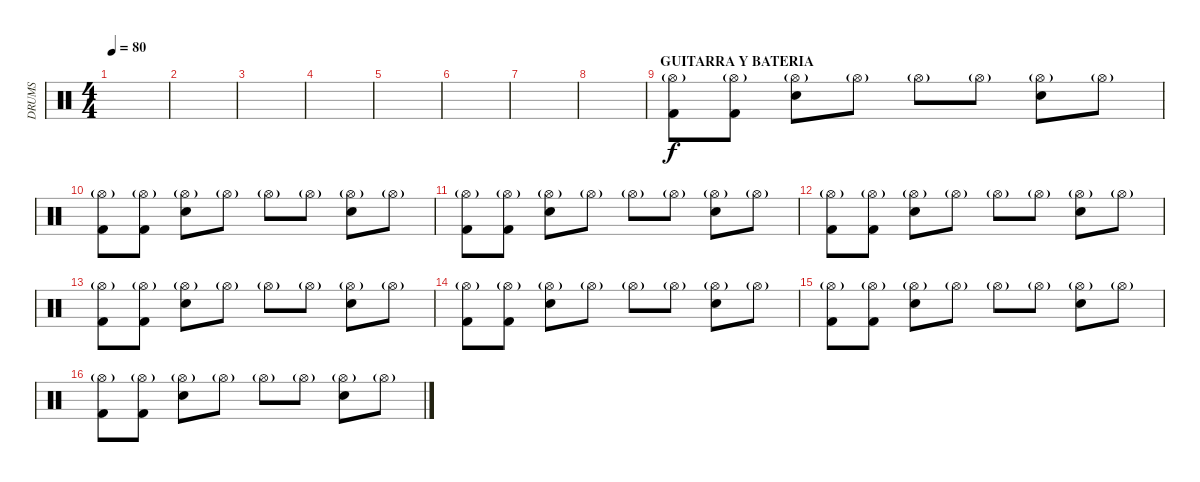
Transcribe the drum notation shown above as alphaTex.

\track ("DRUMS" "DRUMS") {instrument percussion}
\staff {score}
\articulation defaults
\ts (4 4)
\tempo 80
\clef neutral
\ks c
|
|
|
|
|
|
|
|
\section ("" "GUITARRA Y BATERIA")
("Hi-Hat (open)"{g} "Kick (hit) 2").8 ("Hi-Hat (open)"{g} "Kick (hit) 2").8 ("Hi-Hat (open)"{g} "Snare (hit) 2").8 "Hi-Hat (open)"{g}.8 "Hi-Hat (open)"{g}.8 "Hi-Hat (open)"{g}.8 ("Hi-Hat (open)"{g} "Snare (hit) 2").8 "Hi-Hat (open)"{g}.8 |
("Hi-Hat (open)"{g} "Kick (hit) 2").8 ("Hi-Hat (open)"{g} "Kick (hit) 2").8 ("Hi-Hat (open)"{g} "Snare (hit) 2").8 "Hi-Hat (open)"{g}.8 "Hi-Hat (open)"{g}.8 "Hi-Hat (open)"{g}.8 ("Hi-Hat (open)"{g} "Snare (hit) 2").8 "Hi-Hat (open)"{g}.8 |
("Hi-Hat (open)"{g} "Kick (hit) 2").8 ("Hi-Hat (open)"{g} "Kick (hit) 2").8 ("Hi-Hat (open)"{g} "Snare (hit) 2").8 "Hi-Hat (open)"{g}.8 "Hi-Hat (open)"{g}.8 "Hi-Hat (open)"{g}.8 ("Hi-Hat (open)"{g} "Snare (hit) 2").8 "Hi-Hat (open)"{g}.8 |
("Hi-Hat (open)"{g} "Kick (hit) 2").8 ("Hi-Hat (open)"{g} "Kick (hit) 2").8 ("Hi-Hat (open)"{g} "Snare (hit) 2").8 "Hi-Hat (open)"{g}.8 "Hi-Hat (open)"{g}.8 "Hi-Hat (open)"{g}.8 ("Hi-Hat (open)"{g} "Snare (hit) 2").8 "Hi-Hat (open)"{g}.8 |
("Hi-Hat (open)"{g} "Kick (hit) 2").8 ("Hi-Hat (open)"{g} "Kick (hit) 2").8 ("Hi-Hat (open)"{g} "Snare (hit) 2").8 "Hi-Hat (open)"{g}.8 "Hi-Hat (open)"{g}.8 "Hi-Hat (open)"{g}.8 ("Hi-Hat (open)"{g} "Snare (hit) 2").8 "Hi-Hat (open)"{g}.8 |
("Hi-Hat (open)"{g} "Kick (hit) 2").8 ("Hi-Hat (open)"{g} "Kick (hit) 2").8 ("Hi-Hat (open)"{g} "Snare (hit) 2").8 "Hi-Hat (open)"{g}.8 "Hi-Hat (open)"{g}.8 "Hi-Hat (open)"{g}.8 ("Hi-Hat (open)"{g} "Snare (hit) 2").8 "Hi-Hat (open)"{g}.8 |
("Hi-Hat (open)"{g} "Kick (hit) 2").8 ("Hi-Hat (open)"{g} "Kick (hit) 2").8 ("Hi-Hat (open)"{g} "Snare (hit) 2").8 "Hi-Hat (open)"{g}.8 "Hi-Hat (open)"{g}.8 "Hi-Hat (open)"{g}.8 ("Hi-Hat (open)"{g} "Snare (hit) 2").8 "Hi-Hat (open)"{g}.8 |
("Hi-Hat (open)"{g} "Kick (hit) 2").8 ("Hi-Hat (open)"{g} "Kick (hit) 2").8 ("Hi-Hat (open)"{g} "Snare (hit) 2").8 "Hi-Hat (open)"{g}.8 "Hi-Hat (open)"{g}.8 "Hi-Hat (open)"{g}.8 ("Hi-Hat (open)"{g} "Snare (hit) 2").8 "Hi-Hat (open)"{g}.8
